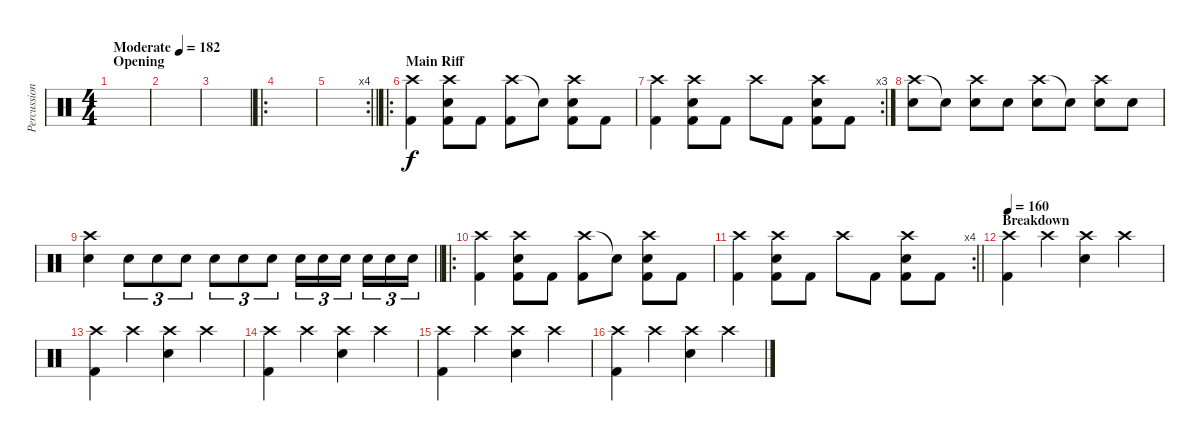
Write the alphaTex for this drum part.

\track ("Percussion" "Percussion") {instrument percussion}
\staff {score}
\articulation defaults
\ts (4 4)
\section ("" "Opening")
\tempo (182 "Moderate")
\clef neutral
\ks c
|
|
|
\ro
|
\rc 4
\barLineRight lightlight
|
\ro
\section ("" "Main Riff")
("Crash high (hit)" "Kick (hit) 2").4 ("Crash high (hit)" "Electric Snare (hit)" "Kick (hit) 2").8 "Kick (hit) 2".8 ("Crash high (hit)" "Kick (hit) 2").8 "Snare (hit)"{t}.8 ("Crash high (hit)" "Electric Snare (hit)" "Kick (hit) 2").8 "Kick (hit) 2".8 |
\rc 3
("Crash high (hit)" "Kick (hit) 2").4 ("Crash high (hit)" "Electric Snare (hit)" "Kick (hit) 2").8 "Kick (hit) 2".8 "Crash high (hit)".8 "Kick (hit) 2".8 ("Crash high (hit)" "Electric Snare (hit)" "Kick (hit) 2").8 "Kick (hit) 2".8 |
("Crash high (hit)" "Electric Snare (hit)").8 "Snare (hit)"{t}.8 ("Crash high (hit)" "Electric Snare (hit)").8 "Electric Snare (hit)".8 ("Crash high (hit)" "Electric Snare (hit)").8 "Snare (hit)"{t}.8 ("Crash high (hit)" "Electric Snare (hit)").8 "Electric Snare (hit)".8 |
\barLineRight lightlight
("Crash high (hit)" "Electric Snare (hit)").4 "Electric Snare (hit)".8{tu (3 2)} "Electric Snare (hit)".8{tu (3 2)} "Electric Snare (hit)".8{tu (3 2)} "Electric Snare (hit)".8{tu (3 2)} "Electric Snare (hit)".8{tu (3 2)} "Electric Snare (hit)".8{tu (3 2)} "Electric Snare (hit)".16{tu (3 2)} "Electric Snare (hit)".16{tu (3 2)} "Electric Snare (hit)".16{tu (3 2) beam splitsecondary} "Electric Snare (hit)".16{tu (3 2)} "Electric Snare (hit)".16{tu (3 2)} "Electric Snare (hit)".16{tu (3 2)} |
\ro
\section ("" "")
("Crash high (hit)" "Kick (hit) 2").4 ("Crash high (hit)" "Electric Snare (hit)" "Kick (hit) 2").8 "Kick (hit) 2".8 ("Crash high (hit)" "Kick (hit) 2").8 "Snare (hit)"{t}.8 ("Crash high (hit)" "Electric Snare (hit)" "Kick (hit) 2").8 "Kick (hit) 2".8 |
\rc 4
\barLineRight lightlight
("Crash high (hit)" "Kick (hit) 2").4 ("Crash high (hit)" "Electric Snare (hit)" "Kick (hit) 2").8 "Kick (hit) 2".8 "Crash high (hit)".8 "Kick (hit) 2".8 ("Crash high (hit)" "Electric Snare (hit)" "Kick (hit) 2").8 "Kick (hit) 2".8 |
\section ("" "Breakdown")
\tempo 160
("Crash high (hit)" "Kick (hit) 2").4 "Crash high (hit)".4 ("Crash high (hit)" "Electric Snare (hit)").4 "Crash high (hit)".4 |
("Crash high (hit)" "Kick (hit) 2").4 "Crash high (hit)".4 ("Crash high (hit)" "Electric Snare (hit)").4 "Crash high (hit)".4 |
("Crash high (hit)" "Kick (hit) 2").4 "Crash high (hit)".4 ("Crash high (hit)" "Electric Snare (hit)").4 "Crash high (hit)".4 |
("Crash high (hit)" "Kick (hit) 2").4 "Crash high (hit)".4 ("Crash high (hit)" "Electric Snare (hit)").4 "Crash high (hit)".4 |
("Crash high (hit)" "Kick (hit) 2").4 "Crash high (hit)".4 ("Crash high (hit)" "Electric Snare (hit)").4 "Crash high (hit)".4
